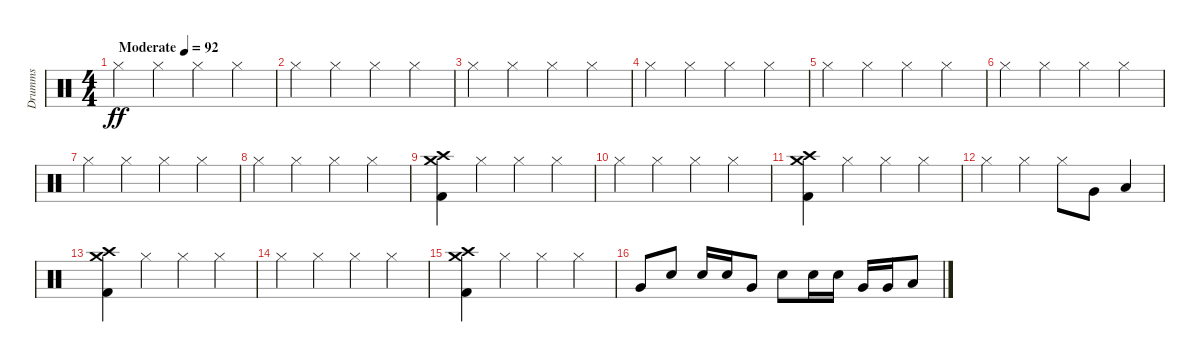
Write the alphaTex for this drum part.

\track ("Drumms" "Drumms") {instrument percussion}
\staff {score}
\articulation defaults
\ts (4 4)
\tempo (92 "Moderate")
\clef neutral
\ks c "Hi-Hat (closed)".4{dy ff} "Hi-Hat (closed)".4 "Hi-Hat (closed)".4 "Hi-Hat (closed)".4
|
"Hi-Hat (closed)".4 "Hi-Hat (closed)".4 "Hi-Hat (closed)".4 "Hi-Hat (closed)".4 |
"Hi-Hat (closed)".4 "Hi-Hat (closed)".4 "Hi-Hat (closed)".4 "Hi-Hat (closed)".4 |
"Hi-Hat (closed)".4 "Hi-Hat (closed)".4 "Hi-Hat (closed)".4 "Hi-Hat (closed)".4 |
"Hi-Hat (closed)".4 "Hi-Hat (closed)".4 "Hi-Hat (closed)".4 "Hi-Hat (closed)".4 |
"Hi-Hat (closed)".4 "Hi-Hat (closed)".4 "Hi-Hat (closed)".4 "Hi-Hat (closed)".4 |
"Hi-Hat (closed)".4 "Hi-Hat (closed)".4 "Hi-Hat (closed)".4 "Hi-Hat (closed)".4 |
"Hi-Hat (closed)".4 "Hi-Hat (closed)".4 "Hi-Hat (closed)".4 "Hi-Hat (closed)".4 |
("Crash medium (hit)" "Crash high (hit)" "Kick (hit) 2").4 "Hi-Hat (closed)".4 "Hi-Hat (closed)".4 "Hi-Hat (closed)".4 |
"Hi-Hat (closed)".4 "Hi-Hat (closed)".4 "Hi-Hat (closed)".4 "Hi-Hat (closed)".4 |
("Crash medium (hit)" "Crash high (hit)" "Kick (hit) 2").4 "Hi-Hat (closed)".4 "Hi-Hat (closed)".4 "Hi-Hat (closed)".4 |
"Hi-Hat (closed)".4 "Hi-Hat (closed)".4 "Hi-Hat (closed)".8 "Very Low Tom (hit)".8 "Low Floor Tom (hit)".4 |
("Crash medium (hit)" "Crash high (hit)" "Kick (hit) 2").4 "Hi-Hat (closed)".4 "Hi-Hat (closed)".4 "Hi-Hat (closed)".4 |
"Hi-Hat (closed)".4 "Hi-Hat (closed)".4 "Hi-Hat (closed)".4 "Hi-Hat (closed)".4 |
("Crash medium (hit)" "Crash high (hit)" "Kick (hit) 2").4 "Hi-Hat (closed)".4 "Hi-Hat (closed)".4 "Hi-Hat (closed)".4 |
"Very Low Tom (hit)".8 "Electric Snare (hit)".8 "Electric Snare (hit)".16 "Electric Snare (hit)".16 "Very Low Tom (hit)".8 "Electric Snare (hit)".8 "Electric Snare (hit)".16 "Electric Snare (hit)".16 "Very Low Tom (hit)".16 "Very Low Tom (hit)".16 "Low Floor Tom (hit)".8
